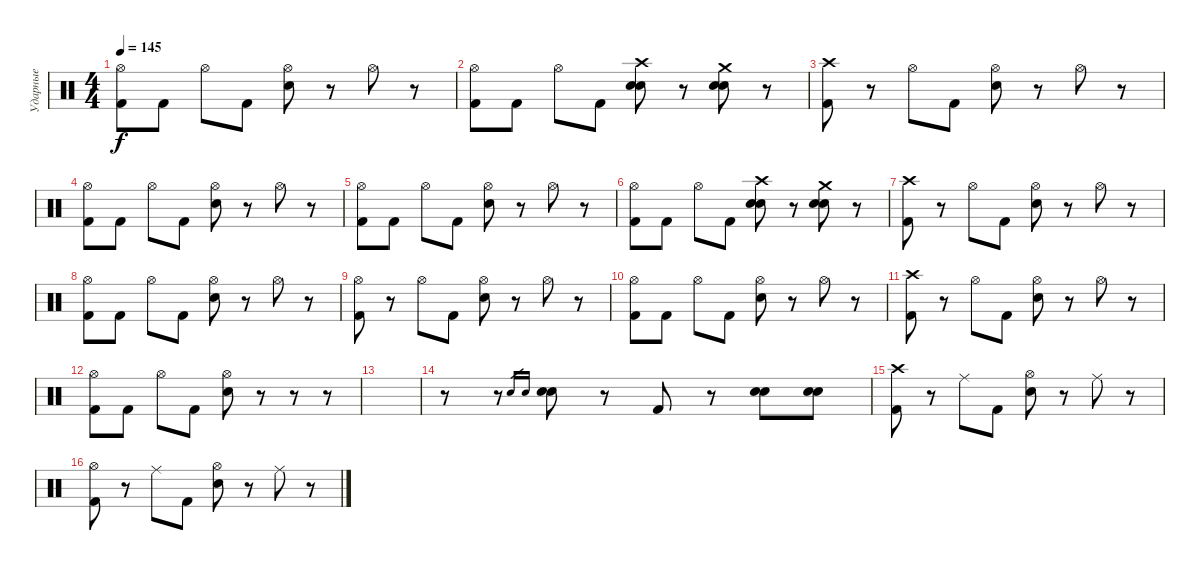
\track ("Ударные" "Ударные") {instrument percussion}
\staff {score}
\articulation defaults
\ts (4 4)
\tempo 145
\clef neutral
\ks c
("Hi-Hat (open)" "Kick (hit) 2").8{dy f} "Kick (hit) 2".8 "Hi-Hat (open)".8 "Kick (hit) 2".8 ("Hi-Hat (open)" "Snare (hit) 2").8 r.8 "Hi-Hat (open)".8 r.8 |
("Hi-Hat (open)" "Kick (hit) 2").8 "Kick (hit) 2".8 "Hi-Hat (open)".8 "Kick (hit) 2".8 ("Crash high (hit)" "Snare (hit) 2" "Snare (hit) 2").8 r.8 ("Crash medium (hit)" "Snare (hit) 2" "Snare (hit) 2").8 r.8 |
("Crash high (hit)" "Kick (hit) 2").8 r.8 "Hi-Hat (open)".8 "Kick (hit) 2".8 ("Hi-Hat (open)" "Snare (hit) 2").8 r.8 "Hi-Hat (open)".8 r.8 |
("Hi-Hat (open)" "Kick (hit) 2").8 "Kick (hit) 2".8 "Hi-Hat (open)".8 "Kick (hit) 2".8 ("Hi-Hat (open)" "Snare (hit) 2").8 r.8 "Hi-Hat (open)".8 r.8 |
("Hi-Hat (open)" "Kick (hit) 2").8 "Kick (hit) 2".8 "Hi-Hat (open)".8 "Kick (hit) 2".8 ("Hi-Hat (open)" "Snare (hit) 2").8 r.8 "Hi-Hat (open)".8 r.8 |
("Hi-Hat (open)" "Kick (hit) 2").8 "Kick (hit) 2".8 "Hi-Hat (open)".8 "Kick (hit) 2".8 ("Crash high (hit)" "Snare (hit) 2" "Snare (hit) 2").8 r.8 ("Crash medium (hit)" "Snare (hit) 2" "Snare (hit) 2").8 r.8 |
("Crash high (hit)" "Kick (hit) 2").8 r.8 "Hi-Hat (open)".8 "Kick (hit) 2".8 ("Hi-Hat (open)" "Snare (hit) 2").8 r.8 "Hi-Hat (open)".8 r.8 |
("Hi-Hat (open)" "Kick (hit) 2").8 "Kick (hit) 2".8 "Hi-Hat (open)".8 "Kick (hit) 2".8 ("Hi-Hat (open)" "Snare (hit) 2").8 r.8 "Hi-Hat (open)".8 r.8 |
("Hi-Hat (open)" "Kick (hit) 2").8 r.8 "Hi-Hat (open)".8 "Kick (hit) 2".8 ("Hi-Hat (open)" "Snare (hit) 2").8 r.8 "Hi-Hat (open)".8 r.8 |
("Hi-Hat (open)" "Kick (hit) 2").8 "Kick (hit) 2".8 "Hi-Hat (open)".8 "Kick (hit) 2".8 ("Hi-Hat (open)" "Snare (hit) 2").8 r.8 "Hi-Hat (open)".8 r.8 |
("Crash high (hit)" "Kick (hit) 2").8 r.8 "Hi-Hat (open)".8 "Kick (hit) 2".8 ("Hi-Hat (open)" "Snare (hit) 2").8 r.8 "Hi-Hat (open)".8 r.8 |
("Hi-Hat (open)" "Kick (hit) 2").8 "Kick (hit) 2".8 "Hi-Hat (open)".8 "Kick (hit) 2".8 ("Hi-Hat (open)" "Snare (hit) 2").8 r.8 r.8 r.8 |
|
r.8 r.8 "Snare (hit) 2".16{gr} "Snare (hit) 2".16{gr} ("Snare (hit) 2" "Snare (hit) 2").8 r.8 "Kick (hit) 2".8 r.8 ("Snare (hit) 2" "Snare (hit) 2").8 ("Snare (hit) 2" "Snare (hit) 2").8 |
("Crash high (hit)" "Kick (hit) 2").8 r.8 "Ride (middle)".8 "Kick (hit) 2".8 ("Hi-Hat (open)" "Snare (hit) 2").8 r.8 "Ride (middle)".8 r.8 |
("Hi-Hat (open)" "Kick (hit) 2").8 r.8 "Ride (middle)".8 "Kick (hit) 2".8 ("Hi-Hat (open)" "Snare (hit) 2").8 r.8 "Ride (middle)".8 r.8
